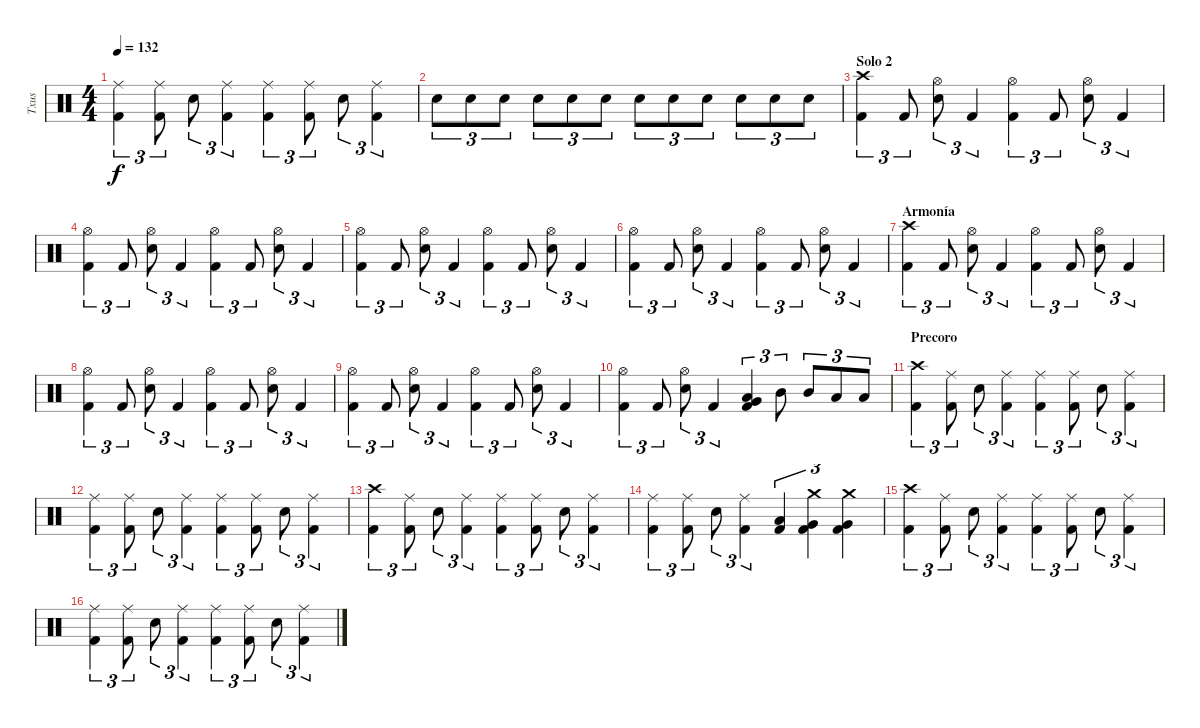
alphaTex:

\track ("Txus" "Txus") {instrument percussion}
\staff {score}
\articulation defaults
\ts (4 4)
\tempo 132
\clef neutral
\ks c
("Kick (hit) 2" "Ride (middle)").4{tu (3 2) dy f} ("Kick (hit) 2" "Ride (middle)").8{tu (3 2)} "Electric Snare (hit)".8{tu (3 2)} ("Kick (hit) 2" "Ride (middle)").4{tu (3 2)} ("Kick (hit) 2" "Ride (middle)").4{tu (3 2)} ("Kick (hit) 2" "Ride (middle)").8{tu (3 2)} "Electric Snare (hit)".8{tu (3 2)} ("Kick (hit) 2" "Ride (middle)").4{tu (3 2)} |
"Electric Snare (hit)".8{tu (3 2)} "Electric Snare (hit)".8{tu (3 2)} "Electric Snare (hit)".8{tu (3 2)} "Electric Snare (hit)".8{tu (3 2)} "Electric Snare (hit)".8{tu (3 2)} "Electric Snare (hit)".8{tu (3 2)} "Electric Snare (hit)".8{tu (3 2)} "Electric Snare (hit)".8{tu (3 2)} "Electric Snare (hit)".8{tu (3 2)} "Electric Snare (hit)".8{tu (3 2)} "Electric Snare (hit)".8{tu (3 2)} "Electric Snare (hit)".8{tu (3 2)} |
\section ("" "Solo 2")
("Kick (hit) 2" "Crash high (hit)").4{tu (3 2)} "Kick (hit) 2".8{tu (3 2)} ("Electric Snare (hit)" "Hi-Hat (open)").8{tu (3 2)} "Kick (hit) 2".4{tu (3 2)} ("Kick (hit) 2" "Hi-Hat (open)").4{tu (3 2)} "Kick (hit) 2".8{tu (3 2)} ("Electric Snare (hit)" "Hi-Hat (open)").8{tu (3 2)} "Kick (hit) 2".4{tu (3 2)} |
("Kick (hit) 2" "Hi-Hat (open)").4{tu (3 2)} "Kick (hit) 2".8{tu (3 2)} ("Electric Snare (hit)" "Hi-Hat (open)").8{tu (3 2)} "Kick (hit) 2".4{tu (3 2)} ("Kick (hit) 2" "Hi-Hat (open)").4{tu (3 2)} "Kick (hit) 2".8{tu (3 2)} ("Electric Snare (hit)" "Hi-Hat (open)").8{tu (3 2)} "Kick (hit) 2".4{tu (3 2)} |
("Kick (hit) 2" "Hi-Hat (open)").4{tu (3 2)} "Kick (hit) 2".8{tu (3 2)} ("Electric Snare (hit)" "Hi-Hat (open)").8{tu (3 2)} "Kick (hit) 2".4{tu (3 2)} ("Kick (hit) 2" "Hi-Hat (open)").4{tu (3 2)} "Kick (hit) 2".8{tu (3 2)} ("Electric Snare (hit)" "Hi-Hat (open)").8{tu (3 2)} "Kick (hit) 2".4{tu (3 2)} |
("Kick (hit) 2" "Hi-Hat (open)").4{tu (3 2)} "Kick (hit) 2".8{tu (3 2)} ("Electric Snare (hit)" "Hi-Hat (open)").8{tu (3 2)} "Kick (hit) 2".4{tu (3 2)} ("Kick (hit) 2" "Hi-Hat (open)").4{tu (3 2)} "Kick (hit) 2".8{tu (3 2)} ("Electric Snare (hit)" "Hi-Hat (open)").8{tu (3 2)} "Kick (hit) 2".4{tu (3 2)} |
\section ("" "Armonía")
("Kick (hit) 2" "Crash high (hit)").4{tu (3 2)} "Kick (hit) 2".8{tu (3 2)} ("Electric Snare (hit)" "Hi-Hat (open)").8{tu (3 2)} "Kick (hit) 2".4{tu (3 2)} ("Kick (hit) 2" "Hi-Hat (open)").4{tu (3 2)} "Kick (hit) 2".8{tu (3 2)} ("Electric Snare (hit)" "Hi-Hat (open)").8{tu (3 2)} "Kick (hit) 2".4{tu (3 2)} |
("Kick (hit) 2" "Hi-Hat (open)").4{tu (3 2)} "Kick (hit) 2".8{tu (3 2)} ("Electric Snare (hit)" "Hi-Hat (open)").8{tu (3 2)} "Kick (hit) 2".4{tu (3 2)} ("Kick (hit) 2" "Hi-Hat (open)").4{tu (3 2)} "Kick (hit) 2".8{tu (3 2)} ("Electric Snare (hit)" "Hi-Hat (open)").8{tu (3 2)} "Kick (hit) 2".4{tu (3 2)} |
("Kick (hit) 2" "Hi-Hat (open)").4{tu (3 2)} "Kick (hit) 2".8{tu (3 2)} ("Electric Snare (hit)" "Hi-Hat (open)").8{tu (3 2)} "Kick (hit) 2".4{tu (3 2)} ("Kick (hit) 2" "Hi-Hat (open)").4{tu (3 2)} "Kick (hit) 2".8{tu (3 2)} ("Electric Snare (hit)" "Hi-Hat (open)").8{tu (3 2)} "Kick (hit) 2".4{tu (3 2)} |
("Kick (hit) 2" "Hi-Hat (open)").4{tu (3 2)} "Kick (hit) 2".8{tu (3 2)} ("Electric Snare (hit)" "Hi-Hat (open)").8{tu (3 2)} "Kick (hit) 2".4{tu (3 2)} ("Kick (hit) 2" "Low Tom (hit)" "Very Low Tom (hit)").4{tu (3 2)} "Mid Tom (hit)".8{tu (3 2)} "Mid Tom (hit)".8{tu (3 2)} "Low Tom (hit)".8{tu (3 2)} "Low Tom (hit)".8{tu (3 2)} |
\section ("" "Precoro")
("Kick (hit) 2" "Crash high (hit)").4{tu (3 2)} ("Kick (hit) 2" "Ride (middle)").8{tu (3 2)} "Electric Snare (hit)".8{tu (3 2)} ("Kick (hit) 2" "Ride (middle)").4{tu (3 2)} ("Kick (hit) 2" "Ride (middle)").4{tu (3 2)} ("Kick (hit) 2" "Ride (middle)").8{tu (3 2)} "Electric Snare (hit)".8{tu (3 2)} ("Kick (hit) 2" "Ride (middle)").4{tu (3 2)} |
("Kick (hit) 2" "Ride (middle)").4{tu (3 2)} ("Kick (hit) 2" "Ride (middle)").8{tu (3 2)} "Electric Snare (hit)".8{tu (3 2)} ("Kick (hit) 2" "Ride (middle)").4{tu (3 2)} ("Kick (hit) 2" "Ride (middle)").4{tu (3 2)} ("Kick (hit) 2" "Ride (middle)").8{tu (3 2)} "Electric Snare (hit)".8{tu (3 2)} ("Kick (hit) 2" "Ride (middle)").4{tu (3 2)} |
("Kick (hit) 2" "Crash high (hit)").4{tu (3 2)} ("Kick (hit) 2" "Ride (middle)").8{tu (3 2)} "Electric Snare (hit)".8{tu (3 2)} ("Kick (hit) 2" "Ride (middle)").4{tu (3 2)} ("Kick (hit) 2" "Ride (middle)").4{tu (3 2)} ("Kick (hit) 2" "Ride (middle)").8{tu (3 2)} "Electric Snare (hit)".8{tu (3 2)} ("Kick (hit) 2" "Ride (middle)").4{tu (3 2)} |
("Kick (hit) 2" "Ride (middle)").4{tu (3 2)} ("Kick (hit) 2" "Ride (middle)").8{tu (3 2)} "Electric Snare (hit)".8{tu (3 2)} ("Kick (hit) 2" "Ride (middle)").4{tu (3 2)} ("Kick (hit) 2" "Low Tom (hit)").4{tu (3 2)} ("Kick (hit) 2" "Very Low Tom (hit)" "Crash medium (hit)").4{tu (3 2)} ("Kick (hit) 2" "Very Low Tom (hit)" "Crash medium (hit)").4{tu (3 2)} |
("Kick (hit) 2" "Crash high (hit)").4{tu (3 2)} ("Kick (hit) 2" "Ride (middle)").8{tu (3 2)} "Electric Snare (hit)".8{tu (3 2)} ("Kick (hit) 2" "Ride (middle)").4{tu (3 2)} ("Kick (hit) 2" "Ride (middle)").4{tu (3 2)} ("Kick (hit) 2" "Ride (middle)").8{tu (3 2)} "Electric Snare (hit)".8{tu (3 2)} ("Kick (hit) 2" "Ride (middle)").4{tu (3 2)} |
("Kick (hit) 2" "Ride (middle)").4{tu (3 2)} ("Kick (hit) 2" "Ride (middle)").8{tu (3 2)} "Electric Snare (hit)".8{tu (3 2)} ("Kick (hit) 2" "Ride (middle)").4{tu (3 2)} ("Kick (hit) 2" "Ride (middle)").4{tu (3 2)} ("Kick (hit) 2" "Ride (middle)").8{tu (3 2)} "Electric Snare (hit)".8{tu (3 2)} ("Kick (hit) 2" "Ride (middle)").4{tu (3 2)}
